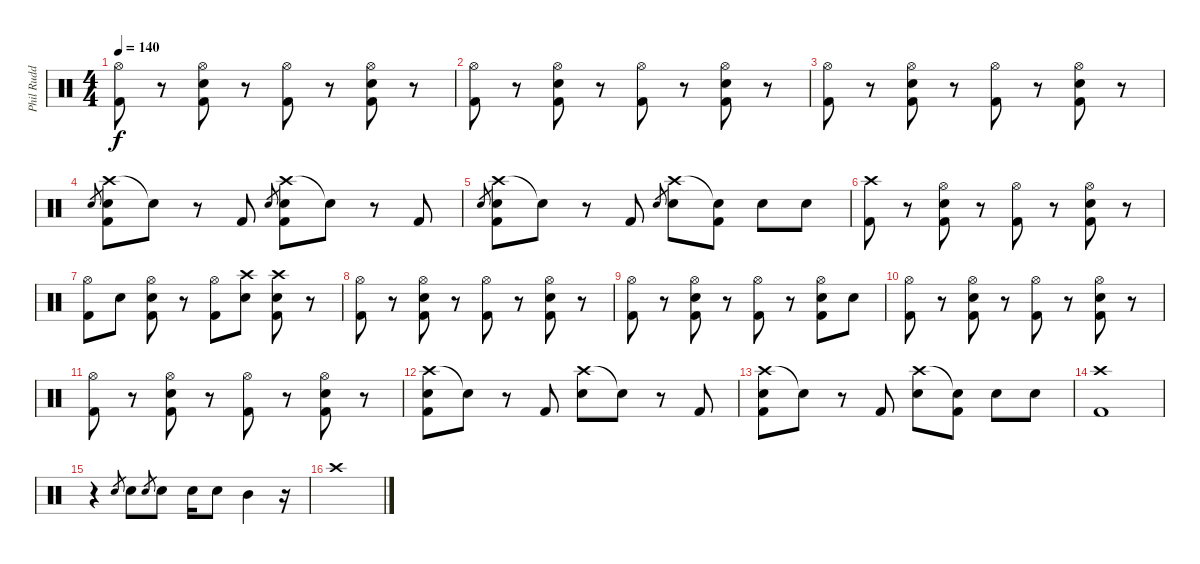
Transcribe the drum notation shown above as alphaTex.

\track ("Phil Rudd" "Phil Rudd") {instrument percussion}
\staff {score}
\articulation defaults
\ts (4 4)
\tempo 140
\clef neutral
\ks c
("Hi-Hat (open)" "Kick (hit) 2").8{dy f} r.8 ("Hi-Hat (open)" "Electric Snare (hit)" "Kick (hit) 2").8 r.8 ("Hi-Hat (open)" "Kick (hit) 2").8 r.8 ("Hi-Hat (open)" "Electric Snare (hit)" "Kick (hit) 2").8 r.8 |
("Hi-Hat (open)" "Kick (hit) 2").8 r.8 ("Hi-Hat (open)" "Electric Snare (hit)" "Kick (hit) 2").8 r.8 ("Hi-Hat (open)" "Kick (hit) 2").8 r.8 ("Hi-Hat (open)" "Electric Snare (hit)" "Kick (hit) 2").8 r.8 |
("Hi-Hat (open)" "Kick (hit) 2").8 r.8 ("Hi-Hat (open)" "Electric Snare (hit)" "Kick (hit) 2").8 r.8 ("Hi-Hat (open)" "Kick (hit) 2").8 r.8 ("Hi-Hat (open)" "Electric Snare (hit)" "Kick (hit) 2").8 r.8 |
"Electric Snare (hit)".8{gr} ("Crash high (hit)" "Electric Snare (hit)" "Kick (hit) 2").8 "Snare (hit)"{t}.8 r.8 "Kick (hit) 2".8 "Electric Snare (hit)".8{gr} ("Crash high (hit)" "Electric Snare (hit)" "Kick (hit) 2").8 "Snare (hit)"{t}.8 r.8 "Kick (hit) 2".8 |
"Electric Snare (hit)".8{gr} ("Crash high (hit)" "Electric Snare (hit)" "Kick (hit) 2").8 "Snare (hit)"{t}.8 r.8 "Kick (hit) 2".8 "Electric Snare (hit)".8{gr} ("Crash high (hit)" "Electric Snare (hit)").8 ("Snare (hit)"{t} "Kick (hit) 2").8 "Electric Snare (hit)".8 "Electric Snare (hit)".8 |
("Crash high (hit)" "Kick (hit) 2").8 r.8 ("Hi-Hat (open)" "Electric Snare (hit)" "Kick (hit) 2").8 r.8 ("Hi-Hat (open)" "Kick (hit) 2").8 r.8 ("Hi-Hat (open)" "Electric Snare (hit)" "Kick (hit) 2").8 r.8 |
("Hi-Hat (open)" "Kick (hit) 2").8 "Electric Snare (hit)".8 ("Hi-Hat (open)" "Electric Snare (hit)" "Kick (hit) 2").8 r.8 ("Hi-Hat (open)" "Kick (hit) 2").8 ("Crash high (hit)" "Electric Snare (hit)").8 ("Crash high (hit)" "Electric Snare (hit)" "Kick (hit) 2").8 r.8 |
("Hi-Hat (open)" "Kick (hit) 2").8 r.8 ("Hi-Hat (open)" "Electric Snare (hit)" "Kick (hit) 2").8 r.8 ("Hi-Hat (open)" "Kick (hit) 2").8 r.8 ("Hi-Hat (open)" "Electric Snare (hit)" "Kick (hit) 2").8 r.8 |
("Hi-Hat (open)" "Kick (hit) 2").8 r.8 ("Hi-Hat (open)" "Electric Snare (hit)" "Kick (hit) 2").8 r.8 ("Hi-Hat (open)" "Kick (hit) 2").8 r.8 ("Hi-Hat (open)" "Electric Snare (hit)" "Kick (hit) 2").8 "Electric Snare (hit)".8 |
("Hi-Hat (open)" "Kick (hit) 2").8 r.8 ("Hi-Hat (open)" "Electric Snare (hit)" "Kick (hit) 2").8 r.8 ("Hi-Hat (open)" "Kick (hit) 2").8 r.8 ("Hi-Hat (open)" "Electric Snare (hit)" "Kick (hit) 2").8 r.8 |
("Hi-Hat (open)" "Kick (hit) 2").8 r.8 ("Hi-Hat (open)" "Electric Snare (hit)" "Kick (hit) 2").8 r.8 ("Hi-Hat (open)" "Kick (hit) 2").8 r.8 ("Hi-Hat (open)" "Electric Snare (hit)" "Kick (hit) 2").8 r.8 |
("Crash high (hit)" "Electric Snare (hit)" "Kick (hit) 2").8 "Snare (hit)"{t}.8 r.8 "Kick (hit) 2".8 ("Crash high (hit)" "Electric Snare (hit)").8 "Snare (hit)"{t}.8 r.8 "Kick (hit) 2".8 |
("Crash high (hit)" "Electric Snare (hit)" "Kick (hit) 2").8 "Snare (hit)"{t}.8 r.8 "Kick (hit) 2".8 ("Crash high (hit)" "Electric Snare (hit)").8 ("Snare (hit)"{t} "Kick (hit) 2").8 "Electric Snare (hit)".8 "Electric Snare (hit)".8 |
("Crash high (hit)" "Kick (hit) 2").1 |
r.4 "Electric Snare (hit)".8{gr} "Electric Snare (hit)".8 "Electric Snare (hit)".8{gr} "Electric Snare (hit)".8 "Electric Snare (hit)".16 "Electric Snare (hit)".8 "Mid Tom (hit)".4 r.16 |
"Crash high (hit)".1
